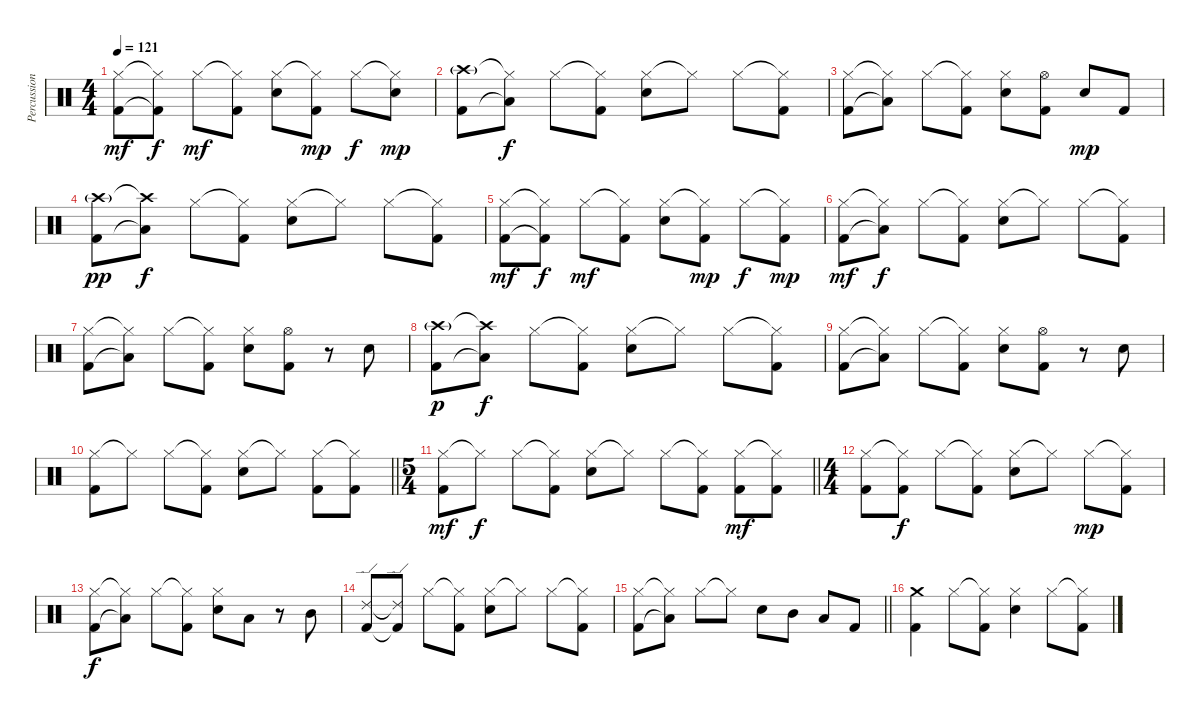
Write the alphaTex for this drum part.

\track ("Percussioni" "Percussion") {instrument percussion}
\staff {score}
\articulation defaults
\ts (4 4)
\tempo 121
\clef neutral
\ks c
("Hi-Hat (closed)" "Kick (hit) 2").8{dy mf} ("Hi-Hat (closed)"{t} "Kick (hit) 2"{t}).8{dy f} "Hi-Hat (closed)".8{dy mf} ("Hi-Hat (closed)"{t} "Kick (hit) 2").8 ("Hi-Hat (closed)" "Snare (hit) 2").8 ("Hi-Hat (closed)"{t} "Kick (hit) 2").8{dy mp} "Hi-Hat (closed)".8{dy f} ("Hi-Hat (closed)"{t} "Snare (hit) 2").8{dy mp} |
("Crash high (hit)"{g} "Kick (hit) 2").8 ("Hi-Hat (closed)"{t} "Low Floor Tom (hit)"{t}).8{dy f} "Hi-Hat (closed)".8 ("Hi-Hat (closed)"{t} "Kick (hit) 2").8 ("Hi-Hat (closed)" "Snare (hit) 2").8 "Hi-Hat (closed)"{t}.8 "Hi-Hat (closed)".8 ("Hi-Hat (closed)"{t} "Kick (hit) 2").8 |
("Hi-Hat (closed)" "Kick (hit) 2").8 ("Hi-Hat (closed)"{t} "Low Floor Tom (hit)"{t}).8 "Hi-Hat (closed)".8 ("Hi-Hat (closed)"{t} "Kick (hit) 2").8 ("Hi-Hat (closed)" "Snare (hit) 2").8 ("Hi-Hat (open)" "Kick (hit) 2").8 "Snare (hit) 2".8{dy mp} "Kick (hit) 2".8 |
("Crash high (hit)"{g} "Kick (hit) 2").8{dy pp} ("Crash high (hit)"{t} "Low Floor Tom (hit)"{t}).8{dy f} "Hi-Hat (closed)".8 ("Hi-Hat (closed)"{t} "Kick (hit) 2").8 ("Hi-Hat (closed)" "Snare (hit) 2").8 "Hi-Hat (closed)"{t}.8 "Hi-Hat (closed)".8 ("Hi-Hat (closed)"{t} "Kick (hit) 2").8 |
("Hi-Hat (closed)" "Kick (hit) 2").8{dy mf} ("Hi-Hat (closed)"{t} "Kick (hit) 2"{t}).8{dy f} "Hi-Hat (closed)".8{dy mf} ("Hi-Hat (closed)"{t} "Kick (hit) 2").8 ("Hi-Hat (closed)" "Snare (hit) 2").8 ("Hi-Hat (closed)"{t} "Kick (hit) 2").8{dy mp} "Hi-Hat (closed)".8{dy f} ("Hi-Hat (closed)"{t} "Kick (hit) 2").8{dy mp} |
("Hi-Hat (closed)" "Kick (hit) 2").8{dy mf} ("Hi-Hat (closed)"{t} "Low Floor Tom (hit)"{t}).8{dy f} "Hi-Hat (closed)".8 ("Hi-Hat (closed)"{t} "Kick (hit) 2").8 ("Hi-Hat (closed)" "Snare (hit) 2").8 "Hi-Hat (closed)"{t}.8 "Hi-Hat (closed)".8 ("Hi-Hat (closed)"{t} "Kick (hit) 2").8 |
("Hi-Hat (closed)" "Kick (hit) 2").8 ("Hi-Hat (closed)"{t} "Low Floor Tom (hit)"{t}).8 "Hi-Hat (closed)".8 ("Hi-Hat (closed)"{t} "Kick (hit) 2").8 ("Hi-Hat (closed)" "Snare (hit) 2").8 ("Hi-Hat (open)" "Kick (hit) 2").8 r.8 "Snare (hit) 2".8 |
("Crash high (hit)"{g} "Kick (hit) 2").8{dy p} ("Crash high (hit)"{t} "Low Floor Tom (hit)"{t}).8{dy f} "Hi-Hat (closed)".8 ("Hi-Hat (closed)"{t} "Kick (hit) 2").8 ("Hi-Hat (closed)" "Snare (hit) 2").8 "Hi-Hat (closed)"{t}.8 "Hi-Hat (closed)".8 ("Hi-Hat (closed)"{t} "Kick (hit) 2").8 |
("Hi-Hat (closed)" "Kick (hit) 2").8 ("Hi-Hat (closed)"{t} "Low Floor Tom (hit)"{t}).8 "Hi-Hat (closed)".8 ("Hi-Hat (closed)"{t} "Kick (hit) 2").8 ("Hi-Hat (closed)" "Snare (hit) 2").8 ("Hi-Hat (open)" "Kick (hit) 2").8 r.8 "Snare (hit) 2".8 |
\barLineRight lightlight
("Hi-Hat (closed)" "Kick (hit) 2").8 "Hi-Hat (closed)"{t}.8 "Hi-Hat (closed)".8 ("Hi-Hat (closed)"{t} "Kick (hit) 2").8 ("Hi-Hat (closed)" "Snare (hit) 2").8 "Hi-Hat (closed)"{t}.8 ("Hi-Hat (closed)" "Kick (hit) 2").8 ("Hi-Hat (closed)"{t} "Kick (hit) 2").8 |
\ts (5 4)
\barLineRight lightlight
("Hi-Hat (closed)" "Kick (hit) 2").8{dy mf} "Hi-Hat (closed)"{t}.8{dy f} "Hi-Hat (closed)".8 ("Hi-Hat (closed)"{t} "Kick (hit) 2").8 ("Hi-Hat (closed)" "Snare (hit) 2").8 "Hi-Hat (closed)"{t}.8 "Hi-Hat (closed)".8 ("Hi-Hat (closed)"{t} "Kick (hit) 2").8 ("Hi-Hat (closed)" "Kick (hit) 2").8{dy mf} ("Hi-Hat (closed)"{t} "Kick (hit) 2").8 |
\ts (4 4)
("Hi-Hat (closed)" "Kick (hit) 2").8 ("Hi-Hat (closed)"{t} "Kick (hit) 2").8{dy f} "Hi-Hat (closed)".8 ("Hi-Hat (closed)"{t} "Kick (hit) 2").8 ("Hi-Hat (closed)" "Snare (hit) 2").8 "Hi-Hat (closed)"{t}.8 "Hi-Hat (closed)".8{dy mp} ("Hi-Hat (closed)"{t} "Kick (hit) 2").8 |
("Hi-Hat (closed)" "Kick (hit) 2").8{dy f} ("Hi-Hat (closed)"{t} "Low Floor Tom (hit)"{t}).8 "Hi-Hat (closed)".8 ("Hi-Hat (closed)"{t} "Kick (hit) 2").8 ("Hi-Hat (closed)" "Snare (hit) 2").8 "Low Tom (hit)".8 r.8 "Mid Tom (hit)".8 |
("Ride (edge) 2" "Kick (hit) 2").8 ("Ride (edge) 2"{t} "Kick (hit) 2"{t}).8 "Hi-Hat (closed)".8 ("Hi-Hat (closed)"{t} "Kick (hit) 2").8 ("Hi-Hat (closed)" "Snare (hit) 2").8 "Hi-Hat (closed)"{t}.8 "Hi-Hat (closed)".8 ("Hi-Hat (closed)"{t} "Kick (hit) 2").8 |
\barLineRight lightlight
("Hi-Hat (closed)" "Kick (hit) 2").8 ("Hi-Hat (closed)"{t} "Low Floor Tom (hit)"{t}).8 "Hi-Hat (closed)".8 "Hi-Hat (closed)"{t}.8 "Snare (hit) 2".8 "Mid Tom (hit)".8 "Low Tom (hit)".8 "Kick (hit) 2".8 |
("Crash medium (hit)" "Kick (hit) 2").4 "Hi-Hat (closed)".8 ("Hi-Hat (closed)"{t} "Kick (hit) 2").8 ("Hi-Hat (closed)" "Snare (hit) 2").4 "Hi-Hat (closed)".8 ("Hi-Hat (closed)"{t} "Kick (hit) 2").8
